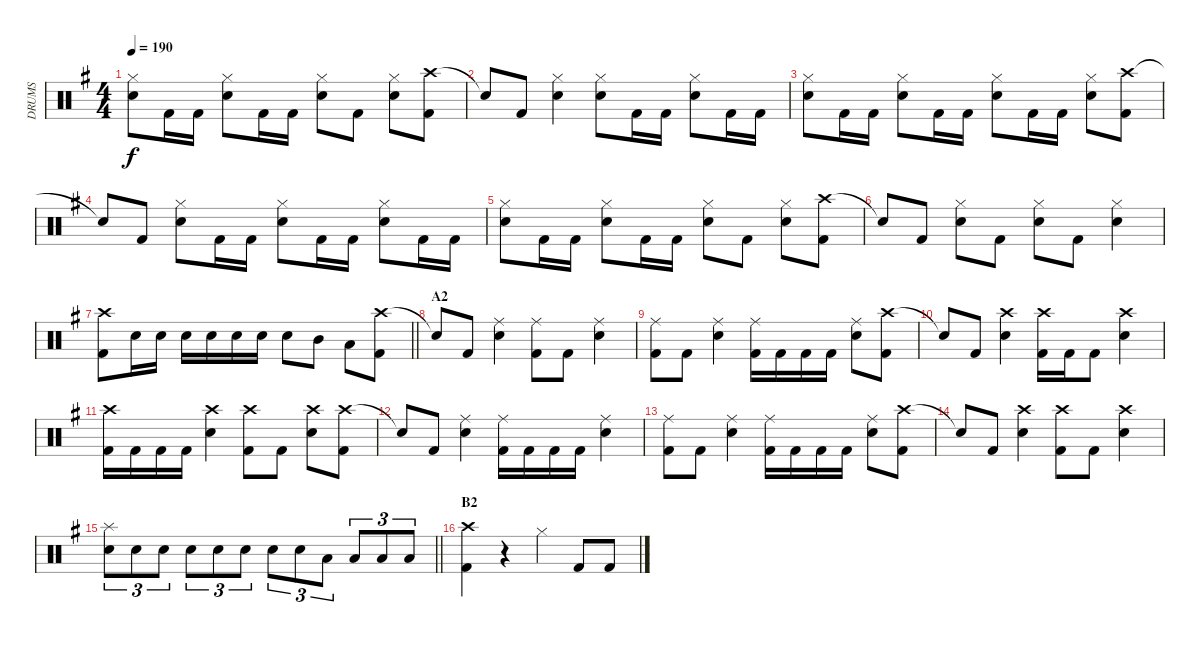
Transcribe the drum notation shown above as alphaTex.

\track ("DRUMS" "DRUMS") {instrument percussion}
\staff {score}
\articulation defaults
\ts (4 4)
\tempo 190
\clef neutral
\ks g
("Hi-Hat (closed)" "Snare (hit) 2").8{dy f} "Kick (hit) 2".16 "Kick (hit) 2".16 ("Hi-Hat (closed)" "Snare (hit) 2").8 "Kick (hit) 2".16 "Kick (hit) 2".16 ("Hi-Hat (closed)" "Snare (hit) 2").8 "Kick (hit) 2".8 ("Hi-Hat (closed)" "Snare (hit) 2").8 ("Crash high (hit)" "Kick (hit) 2").8 |
"Snare (hit)"{t}.8 "Kick (hit) 2".8 ("Hi-Hat (closed)" "Snare (hit) 2").4 ("Hi-Hat (closed)" "Snare (hit) 2").8 "Kick (hit) 2".16 "Kick (hit) 2".16 ("Hi-Hat (closed)" "Snare (hit) 2").8 "Kick (hit) 2".16 "Kick (hit) 2".16 |
("Hi-Hat (closed)" "Snare (hit) 2").8 "Kick (hit) 2".16 "Kick (hit) 2".16 ("Hi-Hat (closed)" "Snare (hit) 2").8 "Kick (hit) 2".16 "Kick (hit) 2".16 ("Hi-Hat (closed)" "Snare (hit) 2").8 "Kick (hit) 2".16 "Kick (hit) 2".16 ("Hi-Hat (closed)" "Snare (hit) 2").8 ("Crash high (hit)" "Kick (hit) 2").8 |
"Snare (hit)"{t}.8 "Kick (hit) 2".8 ("Hi-Hat (closed)" "Snare (hit) 2").8 "Kick (hit) 2".16 "Kick (hit) 2".16 ("Hi-Hat (closed)" "Snare (hit) 2").8 "Kick (hit) 2".16 "Kick (hit) 2".16 ("Hi-Hat (closed)" "Snare (hit) 2").8 "Kick (hit) 2".16 "Kick (hit) 2".16 |
("Hi-Hat (closed)" "Snare (hit) 2").8 "Kick (hit) 2".16 "Kick (hit) 2".16 ("Hi-Hat (closed)" "Snare (hit) 2").8 "Kick (hit) 2".16 "Kick (hit) 2".16 ("Hi-Hat (closed)" "Snare (hit) 2").8 "Kick (hit) 2".8 ("Hi-Hat (closed)" "Snare (hit) 2").8 ("Crash high (hit)" "Kick (hit) 2").8 |
"Snare (hit)"{t}.8 "Kick (hit) 2".8 ("Hi-Hat (closed)" "Snare (hit) 2").8 "Kick (hit) 2".8 ("Hi-Hat (closed)" "Snare (hit) 2").8 "Kick (hit) 2".8 ("Hi-Hat (closed)" "Snare (hit) 2").4 |
\barLineRight lightlight
("Crash high (hit)" "Kick (hit) 2").8 "Snare (hit) 2".16 "Snare (hit) 2".16 "Snare (hit) 2".16 "Snare (hit) 2".16 "Snare (hit) 2".16 "Snare (hit) 2".16 "Snare (hit) 2".8 "Mid Tom (hit)".8 "Low Tom (hit)".8 ("Crash high (hit)" "Kick (hit) 2").8 |
\section ("" "A2")
"Snare (hit)"{t}.8 "Kick (hit) 2".8 ("Ride (middle)" "Snare (hit) 2").4 ("Ride (middle)" "Kick (hit) 2").8 "Kick (hit) 2".8 ("Ride (middle)" "Snare (hit) 2").4 |
("Ride (middle)" "Kick (hit) 2").8 "Kick (hit) 2".8 ("Ride (middle)" "Snare (hit) 2").4 ("Ride (middle)" "Kick (hit) 2").16 "Kick (hit) 2".16 "Kick (hit) 2".16 "Kick (hit) 2".16 ("Ride (middle)" "Snare (hit) 2").8 ("Crash high (hit)" "Kick (hit) 2").8 |
"Snare (hit)"{t}.8 "Kick (hit) 2".8 ("Crash high (hit)" "Snare (hit) 2").4 ("Crash high (hit)" "Kick (hit) 2").16 "Kick (hit) 2".16 "Kick (hit) 2".8 ("Crash high (hit)" "Snare (hit) 2").4 |
("Crash high (hit)" "Kick (hit) 2").16 "Kick (hit) 2".16 "Kick (hit) 2".16 "Kick (hit) 2".16 ("Crash high (hit)" "Snare (hit) 2").4 ("Crash high (hit)" "Kick (hit) 2").8 "Kick (hit) 2".8 ("Crash high (hit)" "Snare (hit) 2").8 ("Crash high (hit)" "Kick (hit) 2").8 |
"Snare (hit)"{t}.8 "Kick (hit) 2".8 ("Ride (middle)" "Snare (hit) 2").4 ("Ride (middle)" "Kick (hit) 2").16 "Kick (hit) 2".16 "Kick (hit) 2".16 "Kick (hit) 2".16 ("Ride (middle)" "Snare (hit) 2").4 |
("Ride (middle)" "Kick (hit) 2").8 "Kick (hit) 2".8 ("Ride (middle)" "Snare (hit) 2").4 ("Ride (middle)" "Kick (hit) 2").16 "Kick (hit) 2".16 "Kick (hit) 2".16 "Kick (hit) 2".16 ("Ride (middle)" "Snare (hit) 2").8 ("Crash high (hit)" "Kick (hit) 2").8 |
"Snare (hit)"{t}.8 "Kick (hit) 2".8 ("Crash high (hit)" "Snare (hit) 2").4 ("Crash high (hit)" "Kick (hit) 2").8 "Kick (hit) 2".8 ("Crash high (hit)" "Snare (hit) 2").4 |
\barLineRight lightlight
("Splash (hit)" "Snare (hit) 2").8{tu (3 2)} "Snare (hit) 2".8{tu (3 2)} "Snare (hit) 2".8{tu (3 2)} "Snare (hit) 2".8{tu (3 2)} "Snare (hit) 2".8{tu (3 2)} "Snare (hit) 2".8{tu (3 2)} "Snare (hit) 2".8{tu (3 2)} "Snare (hit) 2".8{tu (3 2)} "Low Tom (hit)".8{tu (3 2)} "Low Tom (hit)".8{tu (3 2)} "Low Floor Tom (hit)".8{tu (3 2)} "Low Floor Tom (hit)".8{tu (3 2)} |
\section ("" "B2")
("Crash high (hit)" "Kick (hit) 2").4 r.4 "Hi-Hat (closed)".4 "Kick (hit) 2".8 "Kick (hit) 2".8
